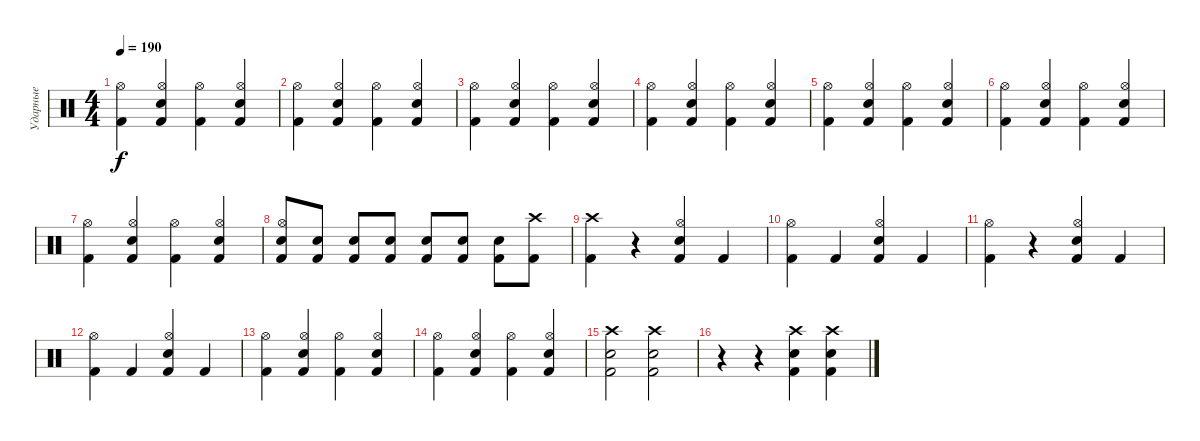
\track ("Ударные" "Ударные") {instrument percussion}
\staff
\articulation defaults
\ts (4 4)
\tempo 190
\clef neutral
\ks c
("Kick (hit) 2" "Hi-Hat (open)").4{dy f} ("Kick (hit) 2" "Snare (hit) 2" "Hi-Hat (open)").4 ("Kick (hit) 2" "Hi-Hat (open)").4 ("Kick (hit) 2" "Snare (hit) 2" "Hi-Hat (open)").4 |
("Kick (hit) 2" "Hi-Hat (open)").4 ("Kick (hit) 2" "Snare (hit) 2" "Hi-Hat (open)").4 ("Kick (hit) 2" "Hi-Hat (open)").4 ("Kick (hit) 2" "Snare (hit) 2" "Hi-Hat (open)").4 |
("Kick (hit) 2" "Hi-Hat (open)").4 ("Kick (hit) 2" "Snare (hit) 2" "Hi-Hat (open)").4 ("Kick (hit) 2" "Hi-Hat (open)").4 ("Kick (hit) 2" "Snare (hit) 2" "Hi-Hat (open)").4 |
("Kick (hit) 2" "Hi-Hat (open)").4 ("Kick (hit) 2" "Snare (hit) 2" "Hi-Hat (open)").4 ("Kick (hit) 2" "Hi-Hat (open)").4 ("Kick (hit) 2" "Snare (hit) 2" "Hi-Hat (open)").4 |
("Kick (hit) 2" "Hi-Hat (open)").4 ("Kick (hit) 2" "Snare (hit) 2" "Hi-Hat (open)").4 ("Kick (hit) 2" "Hi-Hat (open)").4 ("Kick (hit) 2" "Snare (hit) 2" "Hi-Hat (open)").4 |
("Kick (hit) 2" "Hi-Hat (open)").4 ("Kick (hit) 2" "Snare (hit) 2" "Hi-Hat (open)").4 ("Kick (hit) 2" "Hi-Hat (open)").4 ("Kick (hit) 2" "Snare (hit) 2" "Hi-Hat (open)").4 |
("Kick (hit) 2" "Hi-Hat (open)").4 ("Kick (hit) 2" "Snare (hit) 2" "Hi-Hat (open)").4 ("Kick (hit) 2" "Hi-Hat (open)").4 ("Kick (hit) 2" "Snare (hit) 2" "Hi-Hat (open)").4 |
("Kick (hit) 2" "Snare (hit) 2" "Hi-Hat (open)").8 ("Kick (hit) 2" "Snare (hit) 2").8 ("Kick (hit) 2" "Snare (hit) 2").8 ("Kick (hit) 2" "Snare (hit) 2").8 ("Kick (hit) 2" "Snare (hit) 2").8 ("Kick (hit) 2" "Snare (hit) 2").8 ("Kick (hit) 2" "Snare (hit) 2").8 ("Kick (hit) 2" "Crash high (hit)").8 |
("Kick (hit) 2" "Crash high (hit)").4 r.4 ("Kick (hit) 2" "Snare (hit) 2" "Hi-Hat (open)").4 "Kick (hit) 2".4 |
("Kick (hit) 2" "Hi-Hat (open)").4 "Kick (hit) 2".4 ("Kick (hit) 2" "Snare (hit) 2" "Hi-Hat (open)").4 "Kick (hit) 2".4 |
("Kick (hit) 2" "Hi-Hat (open)").4 r.4 ("Kick (hit) 2" "Snare (hit) 2" "Hi-Hat (open)").4 "Kick (hit) 2".4 |
("Kick (hit) 2" "Hi-Hat (open)").4 "Kick (hit) 2".4 ("Kick (hit) 2" "Snare (hit) 2" "Hi-Hat (open)").4 "Kick (hit) 2".4 |
("Kick (hit) 2" "Hi-Hat (open)").4 ("Kick (hit) 2" "Snare (hit) 2" "Hi-Hat (open)").4 ("Kick (hit) 2" "Hi-Hat (open)").4 ("Kick (hit) 2" "Snare (hit) 2" "Hi-Hat (open)").4 |
("Kick (hit) 2" "Hi-Hat (open)").4 ("Kick (hit) 2" "Snare (hit) 2" "Hi-Hat (open)").4 ("Kick (hit) 2" "Hi-Hat (open)").4 ("Kick (hit) 2" "Snare (hit) 2" "Hi-Hat (open)").4 |
("Kick (hit) 2" "Snare (hit) 2" "Crash high (hit)").2 ("Kick (hit) 2" "Snare (hit) 2" "Crash high (hit)").2 |
r.4 r.4 ("Kick (hit) 2" "Snare (hit) 2" "Crash high (hit)").4 ("Kick (hit) 2" "Snare (hit) 2" "Crash high (hit)").4
